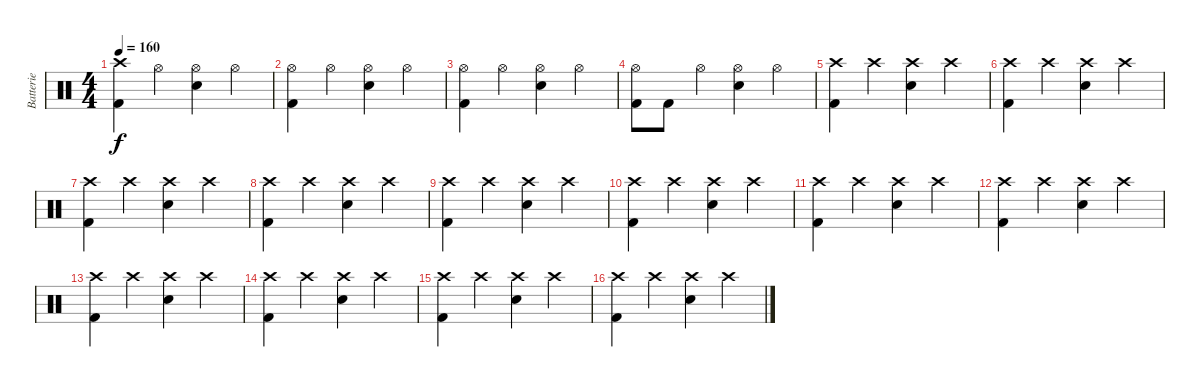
\track ("Batterie" "Batterie") {instrument percussion}
\staff {score}
\articulation defaults
\ts (4 4)
\tempo 160
\clef neutral
\ks c
("Crash high (hit)" "Kick (hit) 2").4{dy f} "Hi-Hat (open)".4 ("Hi-Hat (open)" "Electric Snare (hit)").4 "Hi-Hat (open)".4 |
("Hi-Hat (open)" "Kick (hit) 2").4 "Hi-Hat (open)".4 ("Hi-Hat (open)" "Electric Snare (hit)").4 "Hi-Hat (open)".4 |
("Hi-Hat (open)" "Kick (hit) 2").4 "Hi-Hat (open)".4 ("Hi-Hat (open)" "Electric Snare (hit)").4 "Hi-Hat (open)".4 |
("Hi-Hat (open)" "Kick (hit) 2").8 "Kick (hit) 2".8 "Hi-Hat (open)".4 ("Hi-Hat (open)" "Electric Snare (hit)").4 "Hi-Hat (open)".4 |
("Crash high (hit)" "Kick (hit) 2").4 "Crash high (hit)".4 ("Crash high (hit)" "Electric Snare (hit)").4 "Crash high (hit)".4 |
("Crash high (hit)" "Kick (hit) 2").4 "Crash high (hit)".4 ("Crash high (hit)" "Electric Snare (hit)").4 "Crash high (hit)".4 |
("Crash high (hit)" "Kick (hit) 2").4 "Crash high (hit)".4 ("Crash high (hit)" "Electric Snare (hit)").4 "Crash high (hit)".4 |
("Crash high (hit)" "Kick (hit) 2").4 "Crash high (hit)".4 ("Crash high (hit)" "Electric Snare (hit)").4 "Crash high (hit)".4 |
("Crash high (hit)" "Kick (hit) 2").4 "Crash high (hit)".4 ("Crash high (hit)" "Electric Snare (hit)").4 "Crash high (hit)".4 |
("Crash high (hit)" "Kick (hit) 2").4 "Crash high (hit)".4 ("Crash high (hit)" "Electric Snare (hit)").4 "Crash high (hit)".4 |
("Crash high (hit)" "Kick (hit) 2").4 "Crash high (hit)".4 ("Crash high (hit)" "Electric Snare (hit)").4 "Crash high (hit)".4 |
("Crash high (hit)" "Kick (hit) 2").4 "Crash high (hit)".4 ("Crash high (hit)" "Electric Snare (hit)").4 "Crash high (hit)".4 |
("Crash high (hit)" "Kick (hit) 2").4 "Crash high (hit)".4 ("Crash high (hit)" "Electric Snare (hit)").4 "Crash high (hit)".4 |
("Crash high (hit)" "Kick (hit) 2").4 "Crash high (hit)".4 ("Crash high (hit)" "Electric Snare (hit)").4 "Crash high (hit)".4 |
("Crash high (hit)" "Kick (hit) 2").4 "Crash high (hit)".4 ("Crash high (hit)" "Electric Snare (hit)").4 "Crash high (hit)".4 |
("Crash high (hit)" "Kick (hit) 2").4 "Crash high (hit)".4 ("Crash high (hit)" "Electric Snare (hit)").4 "Crash high (hit)".4
